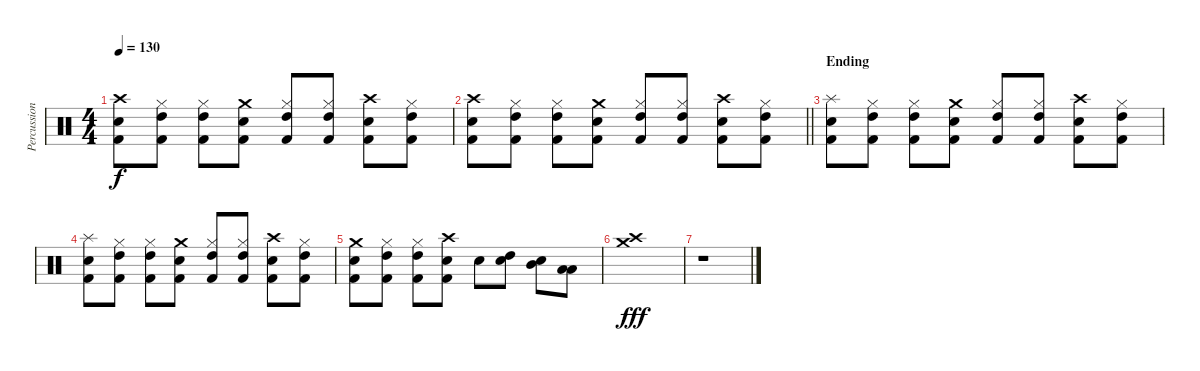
\track ("Percussion" "Percussion") {instrument percussion}
\staff {score}
\articulation defaults
\ts (4 4)
\tempo 130
\clef neutral
\ks c
("Crash high (hit)" "Snare (hit) 2" "Kick (hit) 2").8{dy f} ("Hi-Hat (closed)" "High Tom (hit)" "Kick (hit) 2").8 ("Hi-Hat (closed)" "High Tom (hit)" "Kick (hit) 2").8 ("Crash medium (hit)" "Snare (hit) 2" "Kick (hit) 2").8 ("Hi-Hat (closed)" "High Tom (hit)" "Kick (hit) 2").8 ("Hi-Hat (closed)" "High Tom (hit)" "Kick (hit) 2").8 ("Crash high (hit)" "Snare (hit) 2" "Kick (hit) 2").8 ("Hi-Hat (closed)" "High Tom (hit)" "Kick (hit) 2").8 |
\barLineRight lightlight
("Crash high (hit)" "Snare (hit) 2" "Kick (hit) 2").8 ("Hi-Hat (closed)" "High Tom (hit)" "Kick (hit) 2").8 ("Hi-Hat (closed)" "High Tom (hit)" "Kick (hit) 2").8 ("Crash medium (hit)" "Snare (hit) 2" "Kick (hit) 2").8 ("Hi-Hat (closed)" "High Tom (hit)" "Kick (hit) 2").8 ("Hi-Hat (closed)" "High Tom (hit)" "Kick (hit) 2").8 ("Crash high (hit)" "Snare (hit) 2" "Kick (hit) 2").8 ("Hi-Hat (closed)" "High Tom (hit)" "Kick (hit) 2").8 |
\section ("" "Ending")
("Splash (hit)" "Snare (hit) 2" "Kick (hit) 2").8 ("Hi-Hat (closed)" "High Tom (hit)" "Kick (hit) 2").8 ("Hi-Hat (closed)" "High Tom (hit)" "Kick (hit) 2").8 ("Crash medium (hit)" "Snare (hit) 2" "Kick (hit) 2").8 ("Hi-Hat (closed)" "High Tom (hit)" "Kick (hit) 2").8 ("Hi-Hat (closed)" "High Tom (hit)" "Kick (hit) 2").8 ("Crash high (hit)" "Snare (hit) 2" "Kick (hit) 2").8 ("Hi-Hat (closed)" "High Tom (hit)" "Kick (hit) 2").8 |
("Splash (hit)" "Snare (hit) 2" "Kick (hit) 2").8 ("Hi-Hat (closed)" "High Tom (hit)" "Kick (hit) 2").8 ("Hi-Hat (closed)" "High Tom (hit)" "Kick (hit) 2").8 ("Crash medium (hit)" "Snare (hit) 2" "Kick (hit) 2").8 ("Hi-Hat (closed)" "High Tom (hit)" "Kick (hit) 2").8 ("Hi-Hat (closed)" "High Tom (hit)" "Kick (hit) 2").8 ("Crash high (hit)" "Snare (hit) 2" "Kick (hit) 2").8 ("Hi-Hat (closed)" "High Tom (hit)" "Kick (hit) 2").8 |
("Crash medium (hit)" "Snare (hit) 2" "Kick (hit) 2").8 ("Hi-Hat (closed)" "High Tom (hit)" "Kick (hit) 2").8 ("Hi-Hat (closed)" "High Tom (hit)" "Kick (hit) 2").8 ("Crash high (hit)" "Snare (hit) 2" "Kick (hit) 2").8 "Snare (hit) 2".8 ("High Tom (hit)" "Snare (hit) 2").8 ("Mid Tom (hit)" "Snare (hit) 2").8 ("Low Tom (hit)" "Low Floor Tom (hit)").8 |
("Crash medium (hit)" "Crash high (hit)").1{dy fff} |
r.1
